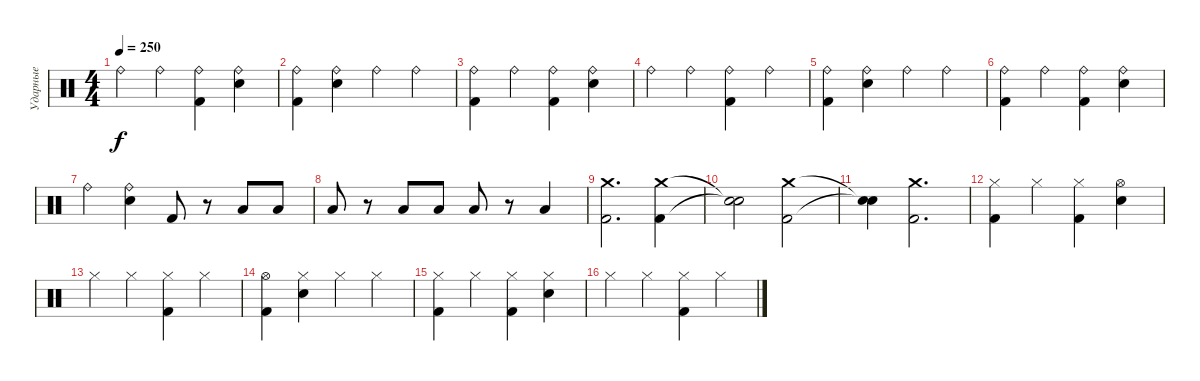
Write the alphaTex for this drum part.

\track ("Ударные" "Ударные") {instrument percussion}
\staff {score}
\articulation defaults
\ts (4 4)
\tempo 250
\clef neutral
\ks c "Ride (bell)".4{dy f} "Ride (bell)".4
("Ride (bell)" "Kick (hit) 2").4 ("Snare (hit) 2" "Ride (bell)").4 |
("Ride (bell)" "Kick (hit) 2").4 ("Snare (hit) 2" "Ride (bell)").4 "Ride (bell)".4 "Ride (bell)".4 |
("Ride (bell)" "Kick (hit) 2").4 "Ride (bell)".4 ("Ride (bell)" "Kick (hit) 2").4 ("Snare (hit) 2" "Ride (bell)").4 |
"Ride (bell)".4 "Ride (bell)".4 ("Ride (bell)" "Kick (hit) 2").4 "Ride (bell)".4 |
("Ride (bell)" "Kick (hit) 2").4 ("Snare (hit) 2" "Ride (bell)").4 "Ride (bell)".4 "Ride (bell)".4 |
("Ride (bell)" "Kick (hit) 2").4 "Ride (bell)".4 ("Ride (bell)" "Kick (hit) 2").4 ("Snare (hit) 2" "Ride (bell)").4 |
"Ride (bell)".4 ("Snare (hit) 2" "Ride (bell)").4 "Kick (hit) 2".8 r.8 "Low Tom (hit)".8 "Low Tom (hit)".8 |
"Low Tom (hit)".8 r.8 "Low Tom (hit)".8 "Low Tom (hit)".8 "Low Tom (hit)".8 r.8 "Low Tom (hit)".4 |
("Crash medium (hit)" "Kick (hit) 2").2{d} ("Crash medium (hit)" "Kick (hit) 2").4 |
("Snare (hit)"{t} "Snare (hit)"{t}).2 ("Crash medium (hit)" "Kick (hit) 2").2 |
("Snare (hit)"{t} "Snare (hit)"{t}).4 ("Crash medium (hit)" "Kick (hit) 2").2{d} |
("Hi-Hat (closed)" "Kick (hit) 2").4 "Hi-Hat (closed)".4 ("Hi-Hat (closed)" "Kick (hit) 2").4 ("Snare (hit) 2" "Hi-Hat (open)").4 |
"Hi-Hat (closed)".4 "Hi-Hat (closed)".4 ("Hi-Hat (closed)" "Kick (hit) 2").4 "Hi-Hat (closed)".4 |
("Hi-Hat (open)" "Kick (hit) 2").4 ("Snare (hit) 2" "Hi-Hat (closed)").4 "Hi-Hat (closed)".4 "Hi-Hat (closed)".4 |
("Hi-Hat (closed)" "Kick (hit) 2").4 "Hi-Hat (closed)".4 ("Hi-Hat (closed)" "Kick (hit) 2").4 ("Snare (hit) 2" "Hi-Hat (closed)").4 |
"Hi-Hat (closed)".4 "Hi-Hat (closed)".4 ("Hi-Hat (closed)" "Kick (hit) 2").4 "Hi-Hat (closed)".4
